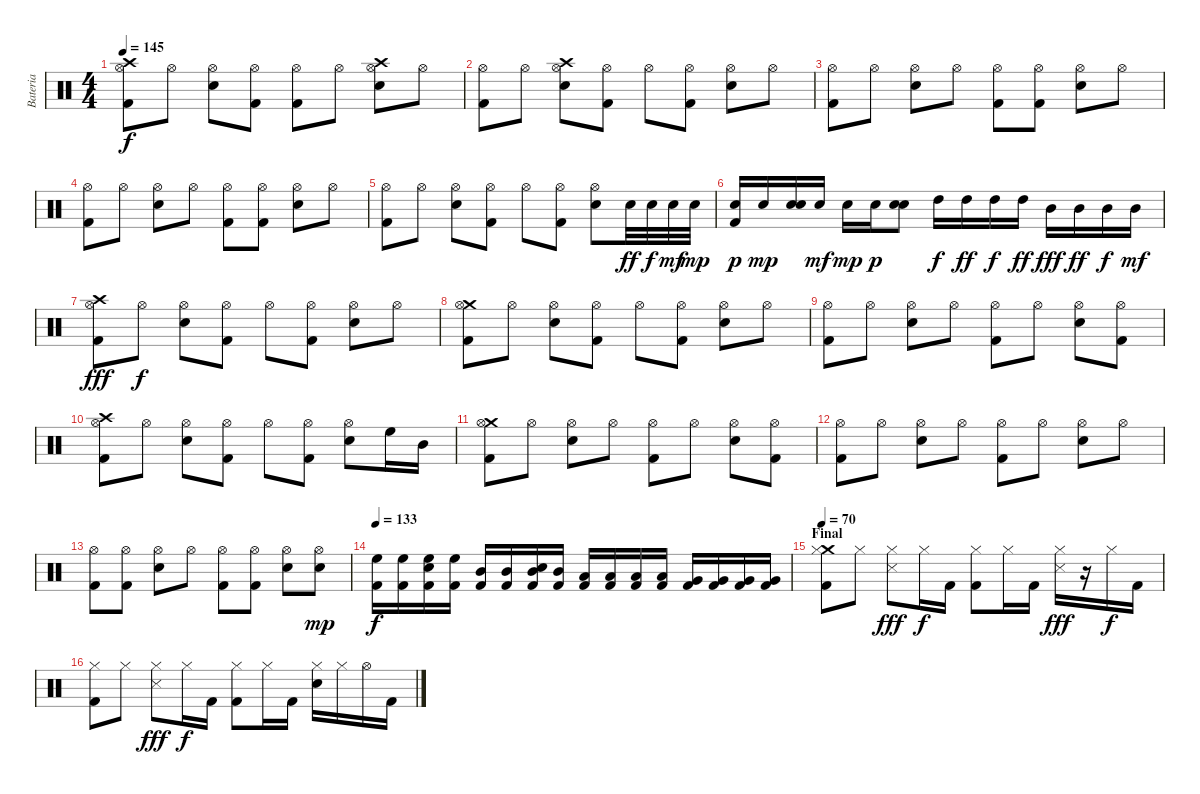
\track ("Bateria" "Bateria") {instrument percussion}
\staff {score}
\articulation defaults
\ts (4 4)
\tempo 145
\clef neutral
\ks c
("Crash high (hit)" "Hi-Hat (open)" "Kick (hit) 2").8{dy f} "Hi-Hat (open)".8 ("Hi-Hat (open)" "Electric Snare (hit)").8 ("Hi-Hat (open)" "Kick (hit) 2").8 ("Hi-Hat (open)" "Kick (hit) 2").8 "Hi-Hat (open)".8 ("Crash high (hit)" "Hi-Hat (open)" "Electric Snare (hit)").8 "Hi-Hat (open)".8 |
("Hi-Hat (open)" "Kick (hit) 2").8 "Hi-Hat (open)".8 ("Crash high (hit)" "Hi-Hat (open)" "Electric Snare (hit)").8 ("Hi-Hat (open)" "Kick (hit) 2").8 "Hi-Hat (open)".8 ("Hi-Hat (open)" "Kick (hit) 2").8 ("Hi-Hat (open)" "Electric Snare (hit)").8 "Hi-Hat (open)".8 |
("Hi-Hat (open)" "Kick (hit) 2").8 "Hi-Hat (open)".8 ("Hi-Hat (open)" "Electric Snare (hit)").8 "Hi-Hat (open)".8 ("Hi-Hat (open)" "Kick (hit) 2").8 ("Hi-Hat (open)" "Kick (hit) 2").8 ("Hi-Hat (open)" "Electric Snare (hit)").8 "Hi-Hat (open)".8 |
("Hi-Hat (open)" "Kick (hit) 2").8 "Hi-Hat (open)".8 ("Hi-Hat (open)" "Electric Snare (hit)").8 "Hi-Hat (open)".8 ("Hi-Hat (open)" "Kick (hit) 2").8 ("Hi-Hat (open)" "Kick (hit) 2").8 ("Hi-Hat (open)" "Electric Snare (hit)").8 "Hi-Hat (open)".8 |
("Hi-Hat (open)" "Kick (hit) 2").8 "Hi-Hat (open)".8 ("Hi-Hat (open)" "Electric Snare (hit)").8 ("Hi-Hat (open)" "Kick (hit) 2").8 "Hi-Hat (open)".8 ("Hi-Hat (open)" "Kick (hit) 2").8 ("Hi-Hat (open)" "Electric Snare (hit)").8 "Snare (hit) 2".32{dy ff} "Snare (hit) 2".32{dy f} "Snare (hit) 2".32{dy mf} "Snare (hit) 2".32{dy mp} |
("Electric Snare (hit)" "Kick (hit) 2").16{dy p} "Electric Snare (hit)".16{dy mp} ("Electric Snare (hit)" "Electric Snare (hit)").16 "Electric Snare (hit)".16{dy mf} "Electric Snare (hit)".16{dy mp} "Electric Snare (hit)".16{dy p} ("Snare (hit) 2" "Electric Snare (hit)").8 "High Tom (hit)".16{dy f} "High Tom (hit)".16{dy ff} "High Tom (hit)".16{dy f} "High Tom (hit)".16{dy ff} "Mid Tom (hit)".16{dy fff} "Mid Tom (hit)".16{dy ff} "Mid Tom (hit)".16{dy f} "Mid Tom (hit)".16{dy mf} |
("Crash high (hit)" "Hi-Hat (open)" "Kick (hit) 2").8{dy fff} "Hi-Hat (open)".8{dy f} ("Hi-Hat (open)" "Electric Snare (hit)").8 ("Hi-Hat (open)" "Kick (hit) 2").8 "Hi-Hat (open)".8 ("Hi-Hat (open)" "Kick (hit) 2").8 ("Hi-Hat (open)" "Electric Snare (hit)").8 "Hi-Hat (open)".8 |
("Crash medium (hit)" "Hi-Hat (open)" "Kick (hit) 2").8 "Hi-Hat (open)".8 ("Hi-Hat (open)" "Electric Snare (hit)").8 ("Hi-Hat (open)" "Kick (hit) 2").8 "Hi-Hat (open)".8 ("Hi-Hat (open)" "Kick (hit) 2").8 ("Hi-Hat (open)" "Electric Snare (hit)").8 "Hi-Hat (open)".8 |
("Hi-Hat (open)" "Kick (hit) 2").8 "Hi-Hat (open)".8 ("Hi-Hat (open)" "Electric Snare (hit)").8 "Hi-Hat (open)".8 ("Hi-Hat (open)" "Kick (hit) 2").8 "Hi-Hat (open)".8 ("Hi-Hat (open)" "Electric Snare (hit)").8 ("Hi-Hat (open)" "Kick (hit) 2").8 |
("Crash high (hit)" "Hi-Hat (open)" "Kick (hit) 2").8 "Hi-Hat (open)".8 ("Hi-Hat (open)" "Electric Snare (hit)").8 ("Hi-Hat (open)" "Kick (hit) 2").8 "Hi-Hat (open)".8 ("Hi-Hat (open)" "Kick (hit) 2").8 ("Hi-Hat (open)" "Electric Snare (hit)").8 "High Floor Tom (hit)".16 "Mid Tom (hit)".16 |
("Crash medium (hit)" "Hi-Hat (open)" "Kick (hit) 2").8 "Hi-Hat (open)".8 ("Hi-Hat (open)" "Electric Snare (hit)").8 "Hi-Hat (open)".8 ("Hi-Hat (open)" "Kick (hit) 2").8 "Hi-Hat (open)".8 ("Hi-Hat (open)" "Electric Snare (hit)").8 ("Hi-Hat (open)" "Kick (hit) 2").8 |
("Hi-Hat (open)" "Kick (hit) 2").8 "Hi-Hat (open)".8 ("Hi-Hat (open)" "Electric Snare (hit)").8 "Hi-Hat (open)".8 ("Hi-Hat (open)" "Kick (hit) 2").8 "Hi-Hat (open)".8 ("Hi-Hat (open)" "Electric Snare (hit)").8 "Hi-Hat (open)".8 |
("Hi-Hat (open)" "Kick (hit) 2").8 ("Hi-Hat (open)" "Kick (hit) 2").8 ("Hi-Hat (open)" "Electric Snare (hit)").8 "Hi-Hat (open)".8 ("Hi-Hat (open)" "Kick (hit) 2").8 ("Hi-Hat (open)" "Kick (hit) 2").8 ("Hi-Hat (open)" "Electric Snare (hit)").8 ("Hi-Hat (open)" "Electric Snare (hit)").8{dy mp} |
\tempo 133
("High Floor Tom (hit)" "Kick (hit) 2").16{dy f} ("High Floor Tom (hit)" "Kick (hit) 2").16 ("High Floor Tom (hit)" "Electric Snare (hit)" "Kick (hit) 2").16 ("High Floor Tom (hit)" "Kick (hit) 2").16 ("Mid Tom (hit)" "Kick (hit) 2").16 ("Mid Tom (hit)" "Kick (hit) 2").16 ("Mid Tom (hit)" "Electric Snare (hit)" "Kick (hit) 2").16 ("Mid Tom (hit)" "Kick (hit) 2").16 ("Low Tom (hit)" "Kick (hit) 2").16 ("Low Tom (hit)" "Kick (hit) 2").16 ("Low Tom (hit)" "Kick (hit) 2").16 ("Low Tom (hit)" "Kick (hit) 2").16 ("Very Low Tom (hit)" "Kick (hit) 2").16 ("Very Low Tom (hit)" "Kick (hit) 2").16 ("Very Low Tom (hit)" "Kick (hit) 2").16 ("Very Low Tom (hit)" "Kick (hit) 2").16 |
\section ("" "Final")
\tempo 70
("Crash medium (hit)" "Hi-Hat (closed)" "Kick (hit) 2").8 "Hi-Hat (closed)".8 ("Hi-Hat (closed)" "Snare (side stick) 3").8{dy fff} "Hi-Hat (closed)".16{dy f} "Kick (hit) 2".16 ("Hi-Hat (closed)" "Kick (hit) 2").8 "Hi-Hat (closed)".16 "Kick (hit) 2".16 ("Hi-Hat (closed)" "Snare (side stick) 3").16{dy fff} r.16 "Hi-Hat (closed)".16{dy f} "Kick (hit) 2".16 |
("Hi-Hat (closed)" "Kick (hit) 2").8 "Hi-Hat (closed)".8 ("Hi-Hat (closed)" "Snare (side stick) 3").8{dy fff} "Hi-Hat (closed)".16{dy f} "Kick (hit) 2".16 ("Hi-Hat (closed)" "Kick (hit) 2").8 "Hi-Hat (closed)".16 "Kick (hit) 2".16 ("Hi-Hat (closed)" "Snare (hit) 2").16 "Hi-Hat (closed)".16 "Hi-Hat (open)".16 "Kick (hit) 2".16
